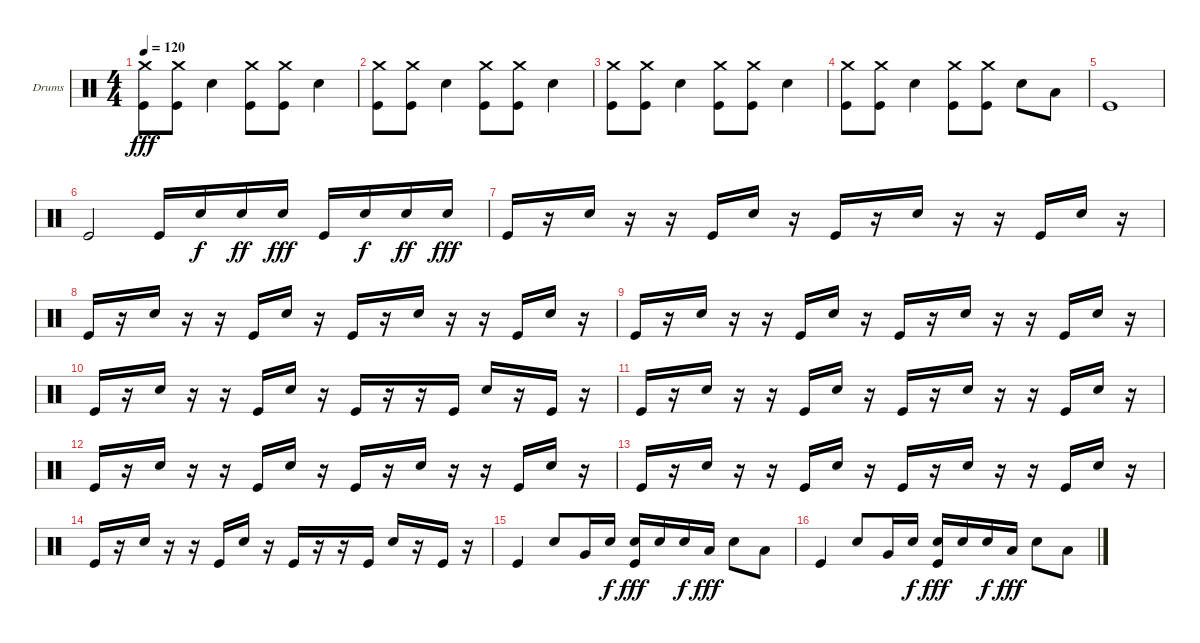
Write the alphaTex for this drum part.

\defaultSystemsLayout 4
\bracketExtendMode groupsimilarinstruments
\firstSystemTrackNameOrientation horizontal
\otherSystemsTrackNameOrientation horizontal
\track ("Пашок" "Drums") {instrument percussion}
\staff {score}
\articulation defaults
\ts (4 4)
\tempo 120
\clef neutral
\ks c
("Kick (hit)" "Crash medium (hit)").8{dy fff} ("Kick (hit)" "Crash medium (hit)").8 "Snare (hit) 2".4 ("Kick (hit)" "Crash medium (hit)").8 ("Kick (hit)" "Crash medium (hit)").8 "Snare (hit) 2".4 |
("Kick (hit)" "Crash medium (hit)").8 ("Kick (hit)" "Crash medium (hit)").8 "Snare (hit) 2".4 ("Kick (hit)" "Crash medium (hit)").8 ("Kick (hit)" "Crash medium (hit)").8 "Snare (hit) 2".4 |
("Kick (hit)" "Crash medium (hit)").8 ("Kick (hit)" "Crash medium (hit)").8 "Snare (hit) 2".4 ("Kick (hit)" "Crash medium (hit)").8 ("Kick (hit)" "Crash medium (hit)").8 "Snare (hit) 2".4 |
("Kick (hit)" "Crash medium (hit)").8 ("Kick (hit)" "Crash medium (hit)").8 "Snare (hit) 2".4 ("Kick (hit)" "Crash medium (hit)").8 ("Kick (hit)" "Crash medium (hit)").8 "Snare (hit) 2".8 "Low Tom (hit)".8 |
"Kick (hit)".1 |
"Kick (hit)".2 "Kick (hit)".16 "Snare (hit) 2".16{dy f} "Snare (hit) 2".16{dy ff} "Snare (hit) 2".16{dy fff} "Kick (hit)".16 "Snare (hit) 2".16{dy f} "Snare (hit) 2".16{dy ff} "Snare (hit) 2".16{dy fff} |
"Kick (hit)".16 r.16 "Snare (hit) 2".16 r.16 r.16 "Kick (hit)".16 "Snare (hit) 2".16 r.16 "Kick (hit)".16 r.16 "Snare (hit) 2".16 r.16 r.16 "Kick (hit)".16 "Snare (hit) 2".16 r.16 |
"Kick (hit)".16 r.16 "Snare (hit) 2".16 r.16 r.16 "Kick (hit)".16 "Snare (hit) 2".16 r.16 "Kick (hit)".16 r.16 "Snare (hit) 2".16 r.16 r.16 "Kick (hit)".16 "Snare (hit) 2".16 r.16 |
"Kick (hit)".16 r.16 "Snare (hit) 2".16 r.16 r.16 "Kick (hit)".16 "Snare (hit) 2".16 r.16 "Kick (hit)".16 r.16 "Snare (hit) 2".16 r.16 r.16 "Kick (hit)".16 "Snare (hit) 2".16 r.16 |
"Kick (hit)".16 r.16 "Snare (hit) 2".16 r.16 r.16 "Kick (hit)".16 "Snare (hit) 2".16 r.16 "Kick (hit)".16 r.16 r.16 "Kick (hit)".16 "Snare (hit) 2".16 r.16 "Kick (hit)".16 r.16 |
"Kick (hit)".16 r.16 "Snare (hit) 2".16 r.16 r.16 "Kick (hit)".16 "Snare (hit) 2".16 r.16 "Kick (hit)".16 r.16 "Snare (hit) 2".16 r.16 r.16 "Kick (hit)".16 "Snare (hit) 2".16 r.16 |
"Kick (hit)".16 r.16 "Snare (hit) 2".16 r.16 r.16 "Kick (hit)".16 "Snare (hit) 2".16 r.16 "Kick (hit)".16 r.16 "Snare (hit) 2".16 r.16 r.16 "Kick (hit)".16 "Snare (hit) 2".16 r.16 |
"Kick (hit)".16 r.16 "Snare (hit) 2".16 r.16 r.16 "Kick (hit)".16 "Snare (hit) 2".16 r.16 "Kick (hit)".16 r.16 "Snare (hit) 2".16 r.16 r.16 "Kick (hit)".16 "Snare (hit) 2".16 r.16 |
"Kick (hit)".16 r.16 "Snare (hit) 2".16 r.16 r.16 "Kick (hit)".16 "Snare (hit) 2".16 r.16 "Kick (hit)".16 r.16 r.16 "Kick (hit)".16 "Snare (hit) 2".16 r.16 "Kick (hit)".16 r.16 |
"Kick (hit)".4 "Snare (hit) 2".8 "Very Low Tom (hit)".16 "Snare (hit) 2".16{dy f} ("Kick (hit)" "Snare (hit) 2").16{dy fff} "Snare (hit) 2".16 "Snare (hit) 2".16{dy f} "Low Tom (hit)".16{dy fff} "Snare (hit) 2".8 "Low Tom (hit)".8 |
"Kick (hit)".4 "Snare (hit) 2".8 "Very Low Tom (hit)".16 "Snare (hit) 2".16{dy f} ("Kick (hit)" "Snare (hit) 2").16{dy fff} "Snare (hit) 2".16 "Snare (hit) 2".16{dy f} "Low Tom (hit)".16{dy fff} "Snare (hit) 2".8 "Low Tom (hit)".8
